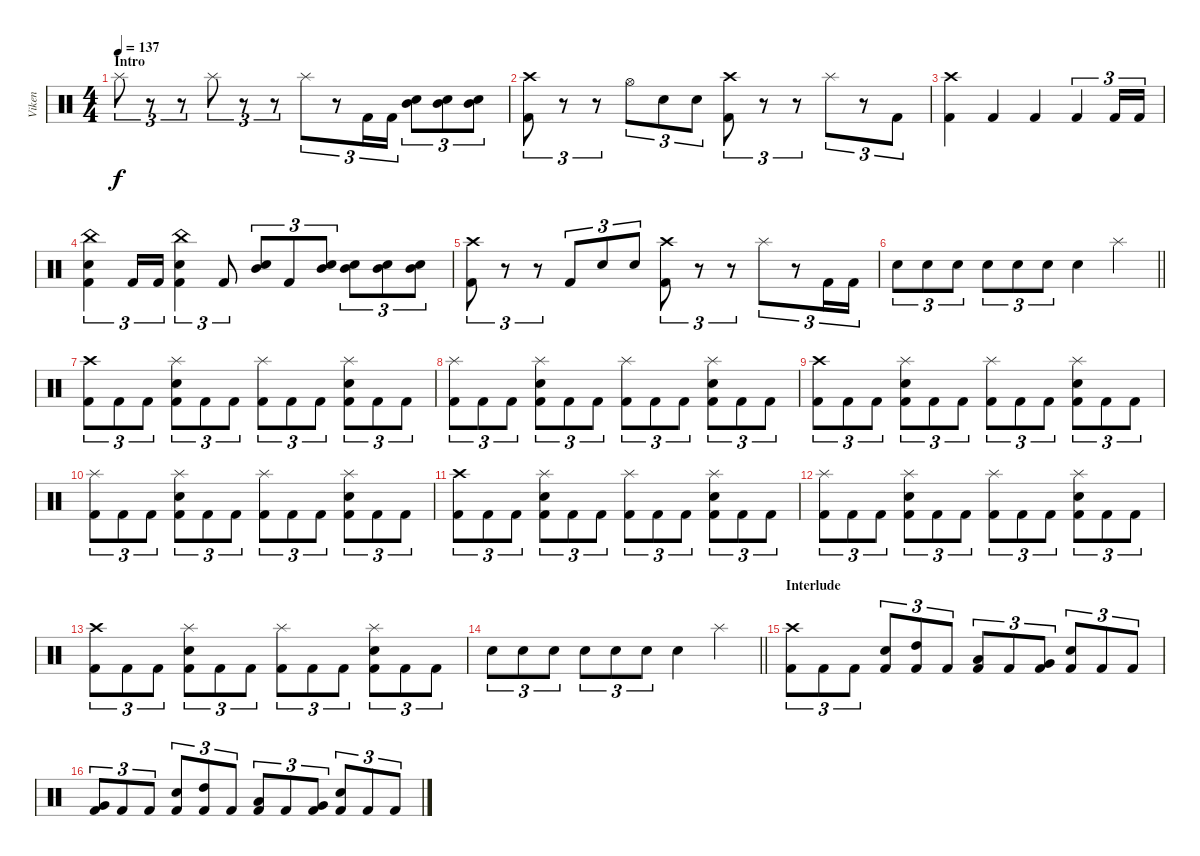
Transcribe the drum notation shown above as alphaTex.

\track ("Viken" "Viken") {instrument percussion}
\staff {score}
\articulation defaults
\ts (4 4)
\section ("" "Intro")
\tempo 137
\clef neutral
\ks c "Splash (hit)".8{tu (3 2) dy f}
r.8{tu (3 2)} r.8{tu (3 2)} "Splash (hit)".8{tu (3 2)} r.8{tu (3 2)} r.8{tu (3 2)} "Splash (hit)".8{tu (3 2)} r.8{tu (3 2)} "Kick (hit) 2".16{tu (3 2)} "Kick (hit) 2".16{tu (3 2)} ("Mid Tom (hit)" "Electric Snare (hit)").8{tu (3 2)} ("Mid Tom (hit)" "Electric Snare (hit)").8{tu (3 2)} ("Mid Tom (hit)" "Electric Snare (hit)").8{tu (3 2)} |
("Crash high (hit)" "Kick (hit) 2").8{tu (3 2)} r.8{tu (3 2)} r.8{tu (3 2)} "Hi-Hat (open)".8{tu (3 2)} "Electric Snare (hit)".8{tu (3 2)} "Electric Snare (hit)".8{tu (3 2)} ("Crash high (hit)" "Kick (hit) 2").8{tu (3 2)} r.8{tu (3 2)} r.8{tu (3 2)} "Splash (hit)".8{tu (3 2)} r.8{tu (3 2)} "Kick (hit) 2".8{tu (3 2)} |
("Crash high (hit)" "Kick (hit) 2").4 "Kick (hit) 2".4 "Kick (hit) 2".4 "Kick (hit) 2".4{tu (3 2)} "Kick (hit) 2".16{tu (3 2)} "Kick (hit) 2".16{tu (3 2)} |
("China (hit)" "Electric Snare (hit)" "Kick (hit) 2").4{tu (3 2)} "Kick (hit) 2".16{tu (3 2)} "Kick (hit) 2".16{tu (3 2)} ("China (hit)" "Electric Snare (hit)" "Kick (hit) 2").4{tu (3 2)} "Kick (hit) 2".8{tu (3 2)} ("Mid Tom (hit)" "Electric Snare (hit)").8{tu (3 2)} "Kick (hit) 2".8{tu (3 2)} ("Mid Tom (hit)" "Electric Snare (hit)").8{tu (3 2)} ("Mid Tom (hit)" "Electric Snare (hit)").8{tu (3 2)} ("Mid Tom (hit)" "Electric Snare (hit)").8{tu (3 2)} ("Mid Tom (hit)" "Electric Snare (hit)").8{tu (3 2)} |
("Crash high (hit)" "Kick (hit) 2").8{tu (3 2)} r.8{tu (3 2)} r.8{tu (3 2)} "Kick (hit) 2".8{tu (3 2)} "Electric Snare (hit)".8{tu (3 2)} "Electric Snare (hit)".8{tu (3 2)} ("Crash high (hit)" "Kick (hit) 2").8{tu (3 2)} r.8{tu (3 2)} r.8{tu (3 2)} "Splash (hit)".8{tu (3 2)} r.8{tu (3 2)} "Kick (hit) 2".16{tu (3 2)} "Kick (hit) 2".16{tu (3 2)} |
\barLineRight lightlight "Electric Snare (hit)".8{tu (3 2)} "Electric Snare (hit)".8{tu (3 2)} "Electric Snare (hit)".8{tu (3 2)} "Electric Snare (hit)".8{tu (3 2)} "Electric Snare (hit)".8{tu (3 2)} "Electric Snare (hit)".8{tu (3 2)} "Electric Snare (hit)".4 "Splash (hit)".4
|
\section ("" "")
("Crash high (hit)" "Kick (hit) 2").8{tu (3 2)} "Kick (hit) 2".8{tu (3 2)} "Kick (hit) 2".8{tu (3 2)} ("Splash (hit)" "Electric Snare (hit)" "Kick (hit) 2").8{tu (3 2)} "Kick (hit) 2".8{tu (3 2)} "Kick (hit) 2".8{tu (3 2)} ("Splash (hit)" "Kick (hit) 2").8{tu (3 2)} "Kick (hit) 2".8{tu (3 2)} "Kick (hit) 2".8{tu (3 2)} ("Splash (hit)" "Electric Snare (hit)" "Kick (hit) 2").8{tu (3 2)} "Kick (hit) 2".8{tu (3 2)} "Kick (hit) 2".8{tu (3 2)} |
("Splash (hit)" "Kick (hit) 2").8{tu (3 2)} "Kick (hit) 2".8{tu (3 2)} "Kick (hit) 2".8{tu (3 2)} ("Splash (hit)" "Electric Snare (hit)" "Kick (hit) 2").8{tu (3 2)} "Kick (hit) 2".8{tu (3 2)} "Kick (hit) 2".8{tu (3 2)} ("Splash (hit)" "Kick (hit) 2").8{tu (3 2)} "Kick (hit) 2".8{tu (3 2)} "Kick (hit) 2".8{tu (3 2)} ("Splash (hit)" "Electric Snare (hit)" "Kick (hit) 2").8{tu (3 2)} "Kick (hit) 2".8{tu (3 2)} "Kick (hit) 2".8{tu (3 2)} |
("Crash high (hit)" "Kick (hit) 2").8{tu (3 2)} "Kick (hit) 2".8{tu (3 2)} "Kick (hit) 2".8{tu (3 2)} ("Splash (hit)" "Electric Snare (hit)" "Kick (hit) 2").8{tu (3 2)} "Kick (hit) 2".8{tu (3 2)} "Kick (hit) 2".8{tu (3 2)} ("Splash (hit)" "Kick (hit) 2").8{tu (3 2)} "Kick (hit) 2".8{tu (3 2)} "Kick (hit) 2".8{tu (3 2)} ("Splash (hit)" "Electric Snare (hit)" "Kick (hit) 2").8{tu (3 2)} "Kick (hit) 2".8{tu (3 2)} "Kick (hit) 2".8{tu (3 2)} |
("Splash (hit)" "Kick (hit) 2").8{tu (3 2)} "Kick (hit) 2".8{tu (3 2)} "Kick (hit) 2".8{tu (3 2)} ("Splash (hit)" "Electric Snare (hit)" "Kick (hit) 2").8{tu (3 2)} "Kick (hit) 2".8{tu (3 2)} "Kick (hit) 2".8{tu (3 2)} ("Splash (hit)" "Kick (hit) 2").8{tu (3 2)} "Kick (hit) 2".8{tu (3 2)} "Kick (hit) 2".8{tu (3 2)} ("Splash (hit)" "Electric Snare (hit)" "Kick (hit) 2").8{tu (3 2)} "Kick (hit) 2".8{tu (3 2)} "Kick (hit) 2".8{tu (3 2)} |
("Crash high (hit)" "Kick (hit) 2").8{tu (3 2)} "Kick (hit) 2".8{tu (3 2)} "Kick (hit) 2".8{tu (3 2)} ("Splash (hit)" "Electric Snare (hit)" "Kick (hit) 2").8{tu (3 2)} "Kick (hit) 2".8{tu (3 2)} "Kick (hit) 2".8{tu (3 2)} ("Splash (hit)" "Kick (hit) 2").8{tu (3 2)} "Kick (hit) 2".8{tu (3 2)} "Kick (hit) 2".8{tu (3 2)} ("Splash (hit)" "Electric Snare (hit)" "Kick (hit) 2").8{tu (3 2)} "Kick (hit) 2".8{tu (3 2)} "Kick (hit) 2".8{tu (3 2)} |
("Splash (hit)" "Kick (hit) 2").8{tu (3 2)} "Kick (hit) 2".8{tu (3 2)} "Kick (hit) 2".8{tu (3 2)} ("Splash (hit)" "Electric Snare (hit)" "Kick (hit) 2").8{tu (3 2)} "Kick (hit) 2".8{tu (3 2)} "Kick (hit) 2".8{tu (3 2)} ("Splash (hit)" "Kick (hit) 2").8{tu (3 2)} "Kick (hit) 2".8{tu (3 2)} "Kick (hit) 2".8{tu (3 2)} ("Splash (hit)" "Electric Snare (hit)" "Kick (hit) 2").8{tu (3 2)} "Kick (hit) 2".8{tu (3 2)} "Kick (hit) 2".8{tu (3 2)} |
("Crash high (hit)" "Kick (hit) 2").8{tu (3 2)} "Kick (hit) 2".8{tu (3 2)} "Kick (hit) 2".8{tu (3 2)} ("Splash (hit)" "Electric Snare (hit)" "Kick (hit) 2").8{tu (3 2)} "Kick (hit) 2".8{tu (3 2)} "Kick (hit) 2".8{tu (3 2)} ("Splash (hit)" "Kick (hit) 2").8{tu (3 2)} "Kick (hit) 2".8{tu (3 2)} "Kick (hit) 2".8{tu (3 2)} ("Splash (hit)" "Electric Snare (hit)" "Kick (hit) 2").8{tu (3 2)} "Kick (hit) 2".8{tu (3 2)} "Kick (hit) 2".8{tu (3 2)} |
\barLineRight lightlight "Electric Snare (hit)".8{tu (3 2)} "Electric Snare (hit)".8{tu (3 2)} "Electric Snare (hit)".8{tu (3 2)} "Electric Snare (hit)".8{tu (3 2)} "Electric Snare (hit)".8{tu (3 2)} "Electric Snare (hit)".8{tu (3 2)} "Electric Snare (hit)".4 "Splash (hit)".4
|
\section ("" "Interlude")
("Crash high (hit)" "Kick (hit) 2").8{tu (3 2)} "Kick (hit) 2".8{tu (3 2)} "Kick (hit) 2".8{tu (3 2)} ("Electric Snare (hit)" "Kick (hit) 2").8{tu (3 2)} ("High Tom (hit)" "Kick (hit) 2").8{tu (3 2)} "Kick (hit) 2".8{tu (3 2)} ("Low Tom (hit)" "Kick (hit) 2").8{tu (3 2)} "Kick (hit) 2".8{tu (3 2)} ("Very Low Tom (hit)" "Kick (hit) 2").8{tu (3 2)} ("Electric Snare (hit)" "Kick (hit) 2").8{tu (3 2)} "Kick (hit) 2".8{tu (3 2)} "Kick (hit) 2".8{tu (3 2)} |
("Very Low Tom (hit)" "Kick (hit) 2").8{tu (3 2)} "Kick (hit) 2".8{tu (3 2)} "Kick (hit) 2".8{tu (3 2)} ("Electric Snare (hit)" "Kick (hit) 2").8{tu (3 2)} ("High Tom (hit)" "Kick (hit) 2").8{tu (3 2)} "Kick (hit) 2".8{tu (3 2)} ("Low Tom (hit)" "Kick (hit) 2").8{tu (3 2)} "Kick (hit) 2".8{tu (3 2)} ("Very Low Tom (hit)" "Kick (hit) 2").8{tu (3 2)} ("Electric Snare (hit)" "Kick (hit) 2").8{tu (3 2)} "Kick (hit) 2".8{tu (3 2)} "Kick (hit) 2".8{tu (3 2)}
